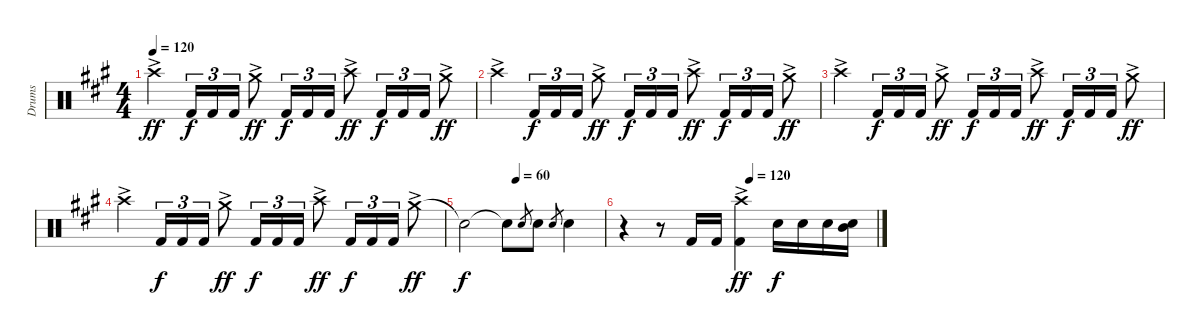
\track ("Drums" "Drums") {instrument percussion}
\staff {score}
\articulation defaults
\ts (4 4)
\tempo 120
\clef neutral
\ks a "Crash high (hit)"{ac}.4{dy ff} "Kick (hit) 2".16{tu (3 2) dy f} "Kick (hit) 2".16{tu (3 2)} "Kick (hit) 2".16{tu (3 2)} "Crash medium (hit)"{ac}.8{dy ff} "Kick (hit) 2".16{tu (3 2) dy f} "Kick (hit) 2".16{tu (3 2)} "Kick (hit) 2".16{tu (3 2)} "Crash high (hit)"{ac}.8{dy ff} "Kick (hit) 2".16{tu (3 2) dy f} "Kick (hit) 2".16{tu (3 2)} "Kick (hit) 2".16{tu (3 2)} "Crash medium (hit)"{ac}.8{dy ff}
|
"Crash high (hit)"{ac}.4 "Kick (hit) 2".16{tu (3 2) dy f} "Kick (hit) 2".16{tu (3 2)} "Kick (hit) 2".16{tu (3 2)} "Crash medium (hit)"{ac}.8{dy ff} "Kick (hit) 2".16{tu (3 2) dy f} "Kick (hit) 2".16{tu (3 2)} "Kick (hit) 2".16{tu (3 2)} "Crash high (hit)"{ac}.8{dy ff} "Kick (hit) 2".16{tu (3 2) dy f} "Kick (hit) 2".16{tu (3 2)} "Kick (hit) 2".16{tu (3 2)} "Crash medium (hit)"{ac}.8{dy ff} |
"Crash high (hit)"{ac}.4 "Kick (hit) 2".16{tu (3 2) dy f} "Kick (hit) 2".16{tu (3 2)} "Kick (hit) 2".16{tu (3 2)} "Crash medium (hit)"{ac}.8{dy ff} "Kick (hit) 2".16{tu (3 2) dy f} "Kick (hit) 2".16{tu (3 2)} "Kick (hit) 2".16{tu (3 2)} "Crash high (hit)"{ac}.8{dy ff} "Kick (hit) 2".16{tu (3 2) dy f} "Kick (hit) 2".16{tu (3 2)} "Kick (hit) 2".16{tu (3 2)} "Crash medium (hit)"{ac}.8{dy ff} |
"Crash high (hit)"{ac}.4 "Kick (hit) 2".16{tu (3 2) dy f} "Kick (hit) 2".16{tu (3 2)} "Kick (hit) 2".16{tu (3 2)} "Crash medium (hit)"{ac}.8{dy ff} "Kick (hit) 2".16{tu (3 2) dy f} "Kick (hit) 2".16{tu (3 2)} "Kick (hit) 2".16{tu (3 2)} "Crash high (hit)"{ac}.8{dy ff} "Kick (hit) 2".16{tu (3 2) dy f} "Kick (hit) 2".16{tu (3 2)} "Kick (hit) 2".16{tu (3 2)} "Crash medium (hit)"{ac}.8{dy ff} |
\tempo (60 0.375)
"Snare (hit)"{t}.2{dy f} "Snare (hit)"{t}.8 "Electric Snare (hit)".8{gr} "Electric Snare (hit)".8 "Electric Snare (hit)".8{gr} "Electric Snare (hit)".4 |
\tempo (120 0.5)
r.4 r.8 "Kick (hit) 2".16 "Kick (hit) 2".16 ("Crash high (hit)"{ac} "Kick (hit) 2").4{dy ff} "Electric Snare (hit)".16{dy f} "Electric Snare (hit)".16 "Electric Snare (hit)".16 ("Electric Snare (hit)" "Mid Tom (hit)").16
